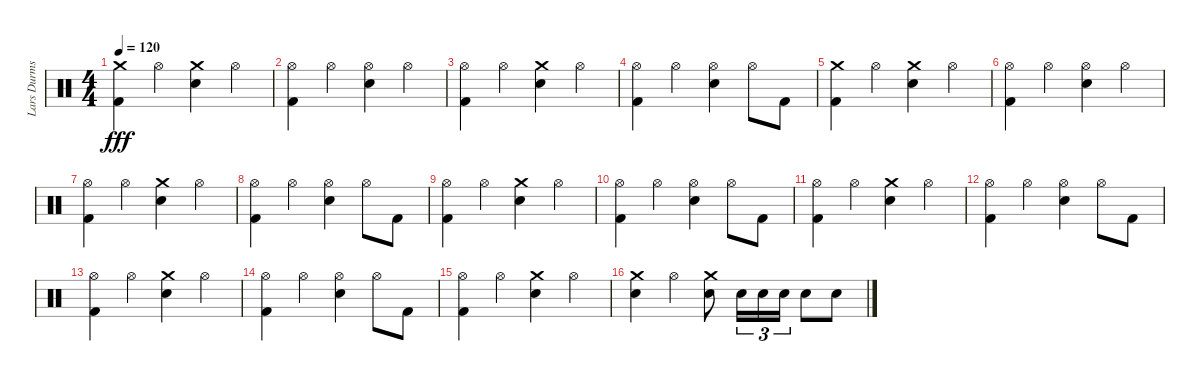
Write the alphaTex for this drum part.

\track ("Lars Durms" "Lars Durms") {instrument percussion}
\staff {score}
\articulation defaults
\ts (4 4)
\tempo 120
\clef neutral
\ks c
("Kick (hit) 2" "Crash medium (hit)").4{dy fff} "Hi-Hat (open)".4 ("Crash medium (hit)" "Snare (hit) 2").4 "Hi-Hat (open)".4 |
("Hi-Hat (open)" "Kick (hit) 2").4 "Hi-Hat (open)".4 ("Snare (hit) 2" "Hi-Hat (open)").4 "Hi-Hat (open)".4 |
("Kick (hit) 2" "Hi-Hat (open)").4 "Hi-Hat (open)".4 ("Crash medium (hit)" "Snare (hit) 2").4 "Hi-Hat (open)".4 |
("Kick (hit) 2" "Hi-Hat (open)").4 "Hi-Hat (open)".4 ("Snare (hit) 2" "Hi-Hat (open)").4 "Hi-Hat (open)".8 "Kick (hit) 2".8 |
("Kick (hit) 2" "Crash medium (hit)").4 "Hi-Hat (open)".4 ("Crash medium (hit)" "Snare (hit) 2").4 "Hi-Hat (open)".4 |
("Hi-Hat (open)" "Kick (hit) 2").4 "Hi-Hat (open)".4 ("Snare (hit) 2" "Hi-Hat (open)").4 "Hi-Hat (open)".4 |
("Kick (hit) 2" "Hi-Hat (open)").4 "Hi-Hat (open)".4 ("Crash medium (hit)" "Snare (hit) 2").4 "Hi-Hat (open)".4 |
("Kick (hit) 2" "Hi-Hat (open)").4 "Hi-Hat (open)".4 ("Snare (hit) 2" "Hi-Hat (open)").4 "Hi-Hat (open)".8 "Kick (hit) 2".8 |
("Kick (hit) 2" "Hi-Hat (open)").4 "Hi-Hat (open)".4 ("Crash medium (hit)" "Snare (hit) 2").4 "Hi-Hat (open)".4 |
("Kick (hit) 2" "Hi-Hat (open)").4 "Hi-Hat (open)".4 ("Snare (hit) 2" "Hi-Hat (open)").4 "Hi-Hat (open)".8 "Kick (hit) 2".8 |
("Kick (hit) 2" "Hi-Hat (open)").4 "Hi-Hat (open)".4 ("Crash medium (hit)" "Snare (hit) 2").4 "Hi-Hat (open)".4 |
("Kick (hit) 2" "Hi-Hat (open)").4 "Hi-Hat (open)".4 ("Snare (hit) 2" "Hi-Hat (open)").4 "Hi-Hat (open)".8 "Kick (hit) 2".8 |
("Kick (hit) 2" "Hi-Hat (open)").4 "Hi-Hat (open)".4 ("Crash medium (hit)" "Snare (hit) 2").4 "Hi-Hat (open)".4 |
("Kick (hit) 2" "Hi-Hat (open)").4 "Hi-Hat (open)".4 ("Snare (hit) 2" "Hi-Hat (open)").4 "Hi-Hat (open)".8 "Kick (hit) 2".8 |
("Hi-Hat (open)" "Kick (hit) 2").4 "Hi-Hat (open)".4 ("Crash medium (hit)" "Snare (hit) 2").4 "Hi-Hat (open)".4 |
("Crash medium (hit)" "Snare (hit) 2").4 "Hi-Hat (open)".4 ("Crash medium (hit)" "Snare (hit) 2").8 "Snare (hit) 2".16{tu (3 2)} "Snare (hit) 2".16{tu (3 2)} "Snare (hit) 2".16{tu (3 2)} "Snare (hit) 2".8 "Snare (hit) 2".8
